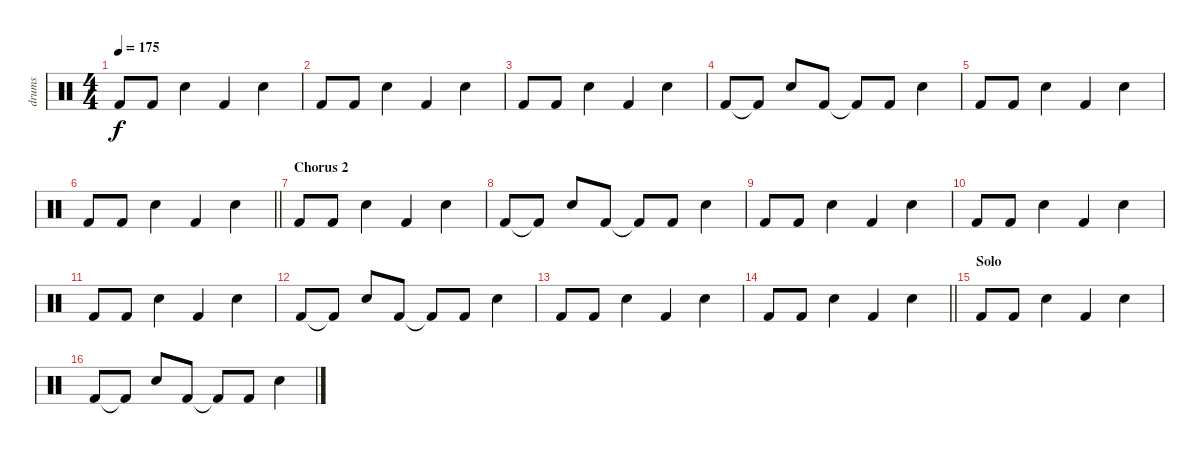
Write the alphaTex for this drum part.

\track ("drums" "drums") {instrument percussion}
\staff {score}
\articulation defaults
\ts (4 4)
\tempo 175
\clef neutral
\ks c "Kick (hit) 2".8{dy f} "Kick (hit) 2".8 "Snare (hit) 2".4 "Kick (hit) 2".4 "Snare (hit) 2".4
|
"Kick (hit) 2".8 "Kick (hit) 2".8 "Snare (hit) 2".4 "Kick (hit) 2".4 "Snare (hit) 2".4 |
"Kick (hit) 2".8 "Kick (hit) 2".8 "Snare (hit) 2".4 "Kick (hit) 2".4 "Snare (hit) 2".4 |
"Kick (hit) 2".8 "Kick (hit) 2"{t}.8 "Snare (hit) 2".8 "Kick (hit) 2".8 "Kick (hit) 2"{t}.8 "Kick (hit) 2".8 "Snare (hit) 2".4 |
"Kick (hit) 2".8 "Kick (hit) 2".8 "Snare (hit) 2".4 "Kick (hit) 2".4 "Snare (hit) 2".4 |
\barLineRight lightlight "Kick (hit) 2".8 "Kick (hit) 2".8 "Snare (hit) 2".4 "Kick (hit) 2".4 "Snare (hit) 2".4
|
\section ("" "Chorus 2")
"Kick (hit) 2".8 "Kick (hit) 2".8 "Snare (hit) 2".4 "Kick (hit) 2".4 "Snare (hit) 2".4 |
"Kick (hit) 2".8 "Kick (hit) 2"{t}.8 "Snare (hit) 2".8 "Kick (hit) 2".8 "Kick (hit) 2"{t}.8 "Kick (hit) 2".8 "Snare (hit) 2".4 |
"Kick (hit) 2".8 "Kick (hit) 2".8 "Snare (hit) 2".4 "Kick (hit) 2".4 "Snare (hit) 2".4 |
"Kick (hit) 2".8 "Kick (hit) 2".8 "Snare (hit) 2".4 "Kick (hit) 2".4 "Snare (hit) 2".4 |
"Kick (hit) 2".8 "Kick (hit) 2".8 "Snare (hit) 2".4 "Kick (hit) 2".4 "Snare (hit) 2".4 |
"Kick (hit) 2".8 "Kick (hit) 2"{t}.8 "Snare (hit) 2".8 "Kick (hit) 2".8 "Kick (hit) 2"{t}.8 "Kick (hit) 2".8 "Snare (hit) 2".4 |
"Kick (hit) 2".8 "Kick (hit) 2".8 "Snare (hit) 2".4 "Kick (hit) 2".4 "Snare (hit) 2".4 |
\barLineRight lightlight "Kick (hit) 2".8 "Kick (hit) 2".8 "Snare (hit) 2".4 "Kick (hit) 2".4 "Snare (hit) 2".4
|
\section ("" "Solo")
"Kick (hit) 2".8 "Kick (hit) 2".8 "Snare (hit) 2".4 "Kick (hit) 2".4 "Snare (hit) 2".4 |
"Kick (hit) 2".8 "Kick (hit) 2"{t}.8 "Snare (hit) 2".8 "Kick (hit) 2".8 "Kick (hit) 2"{t}.8 "Kick (hit) 2".8 "Snare (hit) 2".4
